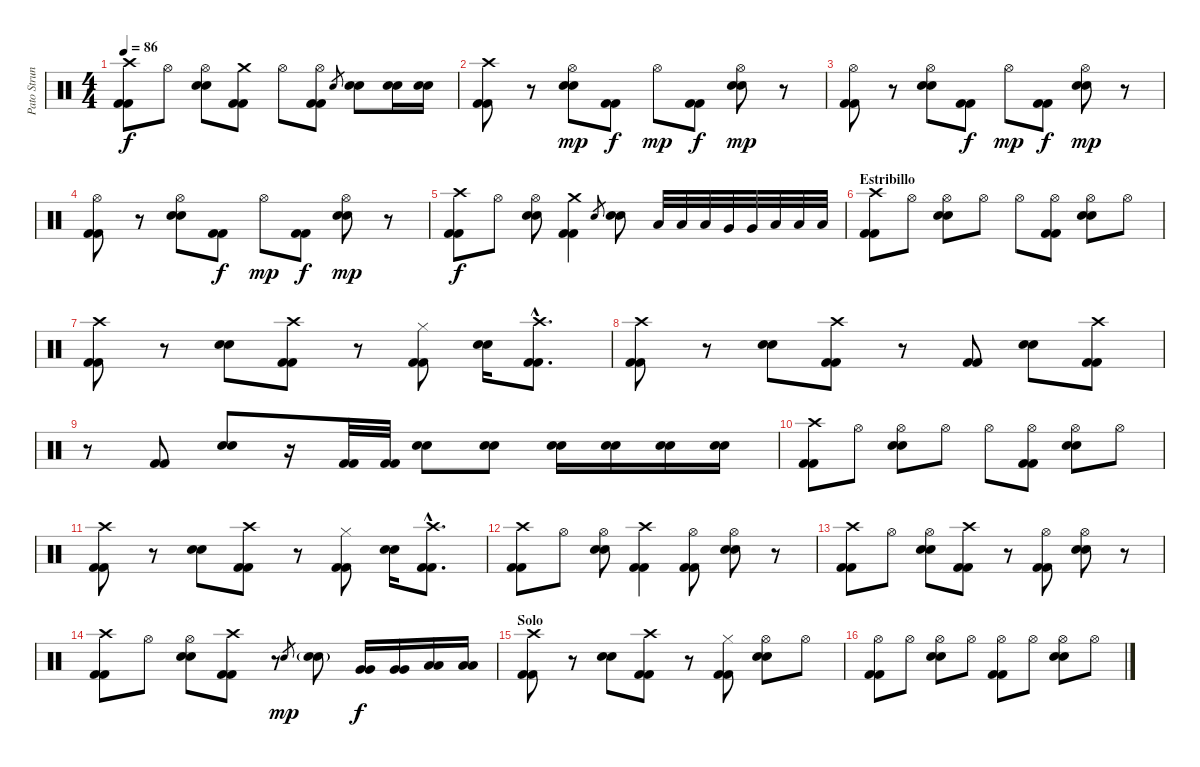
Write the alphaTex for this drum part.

\track ("Pato Strunz (Bateria)" "Pato Strun") {instrument percussion}
\staff {score}
\articulation defaults
\ts (4 4)
\tempo 86
\clef neutral
\ks c
("Crash high (hit)" "Kick (hit) 2" "Kick (hit) 2").8{dy f} "Hi-Hat (open)".8 ("Hi-Hat (open)" "Snare (hit) 2" "Snare (hit) 2").8 ("Crash medium (hit)" "Kick (hit) 2" "Kick (hit) 2").8 "Hi-Hat (open)".8 ("Hi-Hat (open)" "Kick (hit) 2" "Kick (hit) 2").8 "Snare (hit) 2".8{gr} ("Snare (hit) 2" "Snare (hit) 2").8 ("Snare (hit) 2" "Snare (hit) 2").16 ("Snare (hit) 2" "Snare (hit) 2").16 |
("Crash high (hit)" "Kick (hit) 2" "Kick (hit) 2").8 r.8 ("Hi-Hat (open)" "Snare (hit) 2" "Snare (hit) 2").8{dy mp} ("Kick (hit) 2" "Kick (hit) 2").8{dy f} "Hi-Hat (open)".8{dy mp} ("Kick (hit) 2" "Kick (hit) 2").8{dy f} ("Hi-Hat (open)" "Snare (hit) 2" "Snare (hit) 2").8{dy mp} r.8 |
("Hi-Hat (open)" "Kick (hit) 2" "Kick (hit) 2").8 r.8 ("Hi-Hat (open)" "Snare (hit) 2" "Snare (hit) 2").8 ("Kick (hit) 2" "Kick (hit) 2").8{dy f} "Hi-Hat (open)".8{dy mp} ("Kick (hit) 2" "Kick (hit) 2").8{dy f} ("Hi-Hat (open)" "Snare (hit) 2" "Snare (hit) 2").8{dy mp} r.8 |
("Hi-Hat (open)" "Kick (hit) 2" "Kick (hit) 2").8 r.8 ("Hi-Hat (open)" "Snare (hit) 2" "Snare (hit) 2").8 ("Kick (hit) 2" "Kick (hit) 2").8{dy f} "Hi-Hat (open)".8{dy mp} ("Kick (hit) 2" "Kick (hit) 2").8{dy f} ("Hi-Hat (open)" "Snare (hit) 2" "Snare (hit) 2").8{dy mp} r.8 |
("Crash high (hit)" "Kick (hit) 2" "Kick (hit) 2").8{dy f} "Hi-Hat (open)".8 ("Hi-Hat (open)" "Snare (hit) 2" "Snare (hit) 2").8 ("Crash medium (hit)" "Kick (hit) 2" "Kick (hit) 2").4 "Snare (hit) 2".8{gr} ("Snare (hit) 2" "Snare (hit) 2").8 "Low Tom (hit)".32 "Low Tom (hit)".32 "Low Tom (hit)".32 "Very Low Tom (hit)".32 "Very Low Tom (hit)".32 "Low Floor Tom (hit)".32 "Low Floor Tom (hit)".32 "Low Floor Tom (hit)".32 |
\section ("" "Estribillo")
("Crash high (hit)" "Kick (hit) 2" "Kick (hit) 2").8 "Hi-Hat (open)".8 ("Hi-Hat (open)" "Snare (hit) 2" "Snare (hit) 2").8 "Hi-Hat (open)".8 "Hi-Hat (open)".8 ("Hi-Hat (open)" "Kick (hit) 2" "Kick (hit) 2").8 ("Hi-Hat (open)" "Snare (hit) 2" "Snare (hit) 2").8 "Hi-Hat (open)".8 |
("Crash high (hit)" "Kick (hit) 2" "Kick (hit) 2").8 r.8 ("Snare (hit) 2" "Snare (hit) 2").8 ("Crash high (hit)" "Kick (hit) 2" "Kick (hit) 2").8 r.8 ("Hi-Hat (closed)" "Kick (hit) 2" "Kick (hit) 2").8 ("Snare (hit) 2" "Snare (hit) 2").16 ("Crash high (hit)"{hac} "Kick (hit) 2"{hac} "Kick (hit) 2"{hac}).8{d} |
("Crash high (hit)" "Kick (hit) 2" "Kick (hit) 2").8 r.8 ("Snare (hit) 2" "Snare (hit) 2").8 ("Crash high (hit)" "Kick (hit) 2" "Kick (hit) 2").8 r.8 ("Kick (hit) 2" "Kick (hit) 2").8 ("Snare (hit) 2" "Snare (hit) 2").8 ("Crash high (hit)" "Kick (hit) 2" "Kick (hit) 2").8 |
r.8 ("Kick (hit) 2" "Kick (hit) 2").8 ("Snare (hit) 2" "Snare (hit) 2").8 r.16 ("Kick (hit) 2" "Kick (hit) 2").32 ("Kick (hit) 2" "Kick (hit) 2").32 ("Snare (hit) 2" "Snare (hit) 2").8 ("Snare (hit) 2" "Snare (hit) 2").8 ("Snare (hit) 2" "Snare (hit) 2").16 ("Snare (hit) 2" "Snare (hit) 2").16 ("Snare (hit) 2" "Snare (hit) 2").16 ("Snare (hit) 2" "Snare (hit) 2").16 |
("Crash high (hit)" "Kick (hit) 2" "Kick (hit) 2").8 "Hi-Hat (open)".8 ("Hi-Hat (open)" "Snare (hit) 2" "Snare (hit) 2").8 "Hi-Hat (open)".8 "Hi-Hat (open)".8 ("Hi-Hat (open)" "Kick (hit) 2" "Kick (hit) 2").8 ("Hi-Hat (open)" "Snare (hit) 2" "Snare (hit) 2").8 "Hi-Hat (open)".8 |
("Crash high (hit)" "Kick (hit) 2" "Kick (hit) 2").8 r.8 ("Snare (hit) 2" "Snare (hit) 2").8 ("Crash high (hit)" "Kick (hit) 2" "Kick (hit) 2").8 r.8 ("Hi-Hat (closed)" "Kick (hit) 2" "Kick (hit) 2").8 ("Snare (hit) 2" "Snare (hit) 2").16 ("Crash high (hit)"{hac} "Kick (hit) 2"{hac} "Kick (hit) 2"{hac}).8{d} |
("Crash high (hit)" "Kick (hit) 2" "Kick (hit) 2").8 "Hi-Hat (open)".8 ("Hi-Hat (open)" "Snare (hit) 2" "Snare (hit) 2").8 ("Crash high (hit)" "Kick (hit) 2" "Kick (hit) 2").4 ("Hi-Hat (open)" "Kick (hit) 2" "Kick (hit) 2").8 ("Hi-Hat (open)" "Snare (hit) 2" "Snare (hit) 2").8 r.8 |
("Crash high (hit)" "Kick (hit) 2" "Kick (hit) 2").8 "Hi-Hat (open)".8 ("Hi-Hat (open)" "Snare (hit) 2" "Snare (hit) 2").8 ("Crash high (hit)" "Kick (hit) 2" "Kick (hit) 2").8 r.8 ("Hi-Hat (open)" "Kick (hit) 2" "Kick (hit) 2").8 ("Hi-Hat (open)" "Snare (hit) 2" "Snare (hit) 2").8 r.8 |
("Crash high (hit)" "Kick (hit) 2" "Kick (hit) 2").8 "Hi-Hat (open)".8 ("Hi-Hat (open)" "Snare (hit) 2" "Snare (hit) 2").8 ("Crash high (hit)" "Kick (hit) 2" "Kick (hit) 2").8 r.8 "Snare (hit) 2".8{gr dy mp} ("Snare (hit) 2"{g} "Snare (hit) 2").8 ("Very Low Tom (hit)" "Very Low Tom (hit)").16{dy f} ("Very Low Tom (hit)" "Very Low Tom (hit)").16 ("Low Floor Tom (hit)" "Low Floor Tom (hit)").16 ("Low Floor Tom (hit)" "Low Floor Tom (hit)").16 |
\section ("" "Solo")
("Crash high (hit)" "Kick (hit) 2" "Kick (hit) 2").8 r.8 ("Snare (hit) 2" "Snare (hit) 2").8 ("Crash high (hit)" "Kick (hit) 2" "Kick (hit) 2").8 r.8 ("Hi-Hat (closed)" "Kick (hit) 2" "Kick (hit) 2").8 ("Hi-Hat (open)" "Snare (hit) 2" "Snare (hit) 2").8 "Hi-Hat (open)".8 |
("Hi-Hat (open)" "Kick (hit) 2" "Kick (hit) 2").8 "Hi-Hat (open)".8 ("Hi-Hat (open)" "Snare (hit) 2" "Snare (hit) 2").8 "Hi-Hat (open)".8 ("Hi-Hat (open)" "Kick (hit) 2" "Kick (hit) 2").8 "Hi-Hat (open)".8 ("Hi-Hat (open)" "Snare (hit) 2" "Snare (hit) 2").8 "Hi-Hat (open)".8
